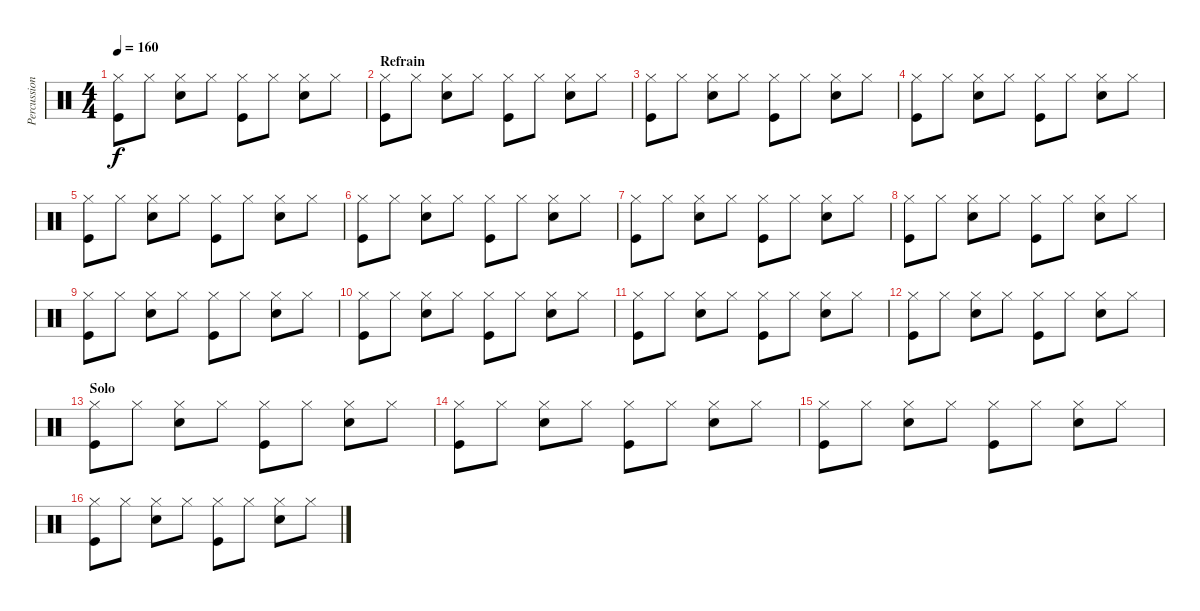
\track ("Percussions" "Percussion") {instrument percussion}
\staff {score}
\articulation defaults
\ts (4 4)
\tempo 160
\clef neutral
\ks c
("Hi-Hat (closed)" "Kick (hit)").8{dy f} "Hi-Hat (closed)".8 ("Hi-Hat (closed)" "Snare (hit) 2").8 "Hi-Hat (closed)".8 ("Hi-Hat (closed)" "Kick (hit)").8 "Hi-Hat (closed)".8 ("Hi-Hat (closed)" "Snare (hit) 2").8 "Hi-Hat (closed)".8 |
\section ("" "Refrain")
("Hi-Hat (closed)" "Kick (hit)").8 "Hi-Hat (closed)".8 ("Hi-Hat (closed)" "Snare (hit) 2").8 "Hi-Hat (closed)".8 ("Hi-Hat (closed)" "Kick (hit)").8 "Hi-Hat (closed)".8 ("Hi-Hat (closed)" "Snare (hit) 2").8 "Hi-Hat (closed)".8 |
("Hi-Hat (closed)" "Kick (hit)").8 "Hi-Hat (closed)".8 ("Hi-Hat (closed)" "Snare (hit) 2").8 "Hi-Hat (closed)".8 ("Hi-Hat (closed)" "Kick (hit)").8 "Hi-Hat (closed)".8 ("Hi-Hat (closed)" "Snare (hit) 2").8 "Hi-Hat (closed)".8 |
("Hi-Hat (closed)" "Kick (hit)").8 "Hi-Hat (closed)".8 ("Hi-Hat (closed)" "Snare (hit) 2").8 "Hi-Hat (closed)".8 ("Hi-Hat (closed)" "Kick (hit)").8 "Hi-Hat (closed)".8 ("Hi-Hat (closed)" "Snare (hit) 2").8 "Hi-Hat (closed)".8 |
("Hi-Hat (closed)" "Kick (hit)").8 "Hi-Hat (closed)".8 ("Hi-Hat (closed)" "Snare (hit) 2").8 "Hi-Hat (closed)".8 ("Hi-Hat (closed)" "Kick (hit)").8 "Hi-Hat (closed)".8 ("Hi-Hat (closed)" "Snare (hit) 2").8 "Hi-Hat (closed)".8 |
("Hi-Hat (closed)" "Kick (hit)").8 "Hi-Hat (closed)".8 ("Hi-Hat (closed)" "Snare (hit) 2").8 "Hi-Hat (closed)".8 ("Hi-Hat (closed)" "Kick (hit)").8 "Hi-Hat (closed)".8 ("Hi-Hat (closed)" "Snare (hit) 2").8 "Hi-Hat (closed)".8 |
("Hi-Hat (closed)" "Kick (hit)").8 "Hi-Hat (closed)".8 ("Hi-Hat (closed)" "Snare (hit) 2").8 "Hi-Hat (closed)".8 ("Hi-Hat (closed)" "Kick (hit)").8 "Hi-Hat (closed)".8 ("Hi-Hat (closed)" "Snare (hit) 2").8 "Hi-Hat (closed)".8 |
("Hi-Hat (closed)" "Kick (hit)").8 "Hi-Hat (closed)".8 ("Hi-Hat (closed)" "Snare (hit) 2").8 "Hi-Hat (closed)".8 ("Hi-Hat (closed)" "Kick (hit)").8 "Hi-Hat (closed)".8 ("Hi-Hat (closed)" "Snare (hit) 2").8 "Hi-Hat (closed)".8 |
("Hi-Hat (closed)" "Kick (hit)").8 "Hi-Hat (closed)".8 ("Hi-Hat (closed)" "Snare (hit) 2").8 "Hi-Hat (closed)".8 ("Hi-Hat (closed)" "Kick (hit)").8 "Hi-Hat (closed)".8 ("Hi-Hat (closed)" "Snare (hit) 2").8 "Hi-Hat (closed)".8 |
("Hi-Hat (closed)" "Kick (hit)").8 "Hi-Hat (closed)".8 ("Hi-Hat (closed)" "Snare (hit) 2").8 "Hi-Hat (closed)".8 ("Hi-Hat (closed)" "Kick (hit)").8 "Hi-Hat (closed)".8 ("Hi-Hat (closed)" "Snare (hit) 2").8 "Hi-Hat (closed)".8 |
("Hi-Hat (closed)" "Kick (hit)").8 "Hi-Hat (closed)".8 ("Hi-Hat (closed)" "Snare (hit) 2").8 "Hi-Hat (closed)".8 ("Hi-Hat (closed)" "Kick (hit)").8 "Hi-Hat (closed)".8 ("Hi-Hat (closed)" "Snare (hit) 2").8 "Hi-Hat (closed)".8 |
("Hi-Hat (closed)" "Kick (hit)").8 "Hi-Hat (closed)".8 ("Hi-Hat (closed)" "Snare (hit) 2").8 "Hi-Hat (closed)".8 ("Hi-Hat (closed)" "Kick (hit)").8 "Hi-Hat (closed)".8 ("Hi-Hat (closed)" "Snare (hit) 2").8 "Hi-Hat (closed)".8 |
\section ("" "Solo")
("Hi-Hat (closed)" "Kick (hit)").8 "Hi-Hat (closed)".8 ("Hi-Hat (closed)" "Snare (hit) 2").8 "Hi-Hat (closed)".8 ("Hi-Hat (closed)" "Kick (hit)").8 "Hi-Hat (closed)".8 ("Hi-Hat (closed)" "Snare (hit) 2").8 "Hi-Hat (closed)".8 |
("Hi-Hat (closed)" "Kick (hit)").8 "Hi-Hat (closed)".8 ("Hi-Hat (closed)" "Snare (hit) 2").8 "Hi-Hat (closed)".8 ("Hi-Hat (closed)" "Kick (hit)").8 "Hi-Hat (closed)".8 ("Hi-Hat (closed)" "Snare (hit) 2").8 "Hi-Hat (closed)".8 |
("Hi-Hat (closed)" "Kick (hit)").8 "Hi-Hat (closed)".8 ("Hi-Hat (closed)" "Snare (hit) 2").8 "Hi-Hat (closed)".8 ("Hi-Hat (closed)" "Kick (hit)").8 "Hi-Hat (closed)".8 ("Hi-Hat (closed)" "Snare (hit) 2").8 "Hi-Hat (closed)".8 |
("Hi-Hat (closed)" "Kick (hit)").8 "Hi-Hat (closed)".8 ("Hi-Hat (closed)" "Snare (hit) 2").8 "Hi-Hat (closed)".8 ("Hi-Hat (closed)" "Kick (hit)").8 "Hi-Hat (closed)".8 ("Hi-Hat (closed)" "Snare (hit) 2").8 "Hi-Hat (closed)".8
